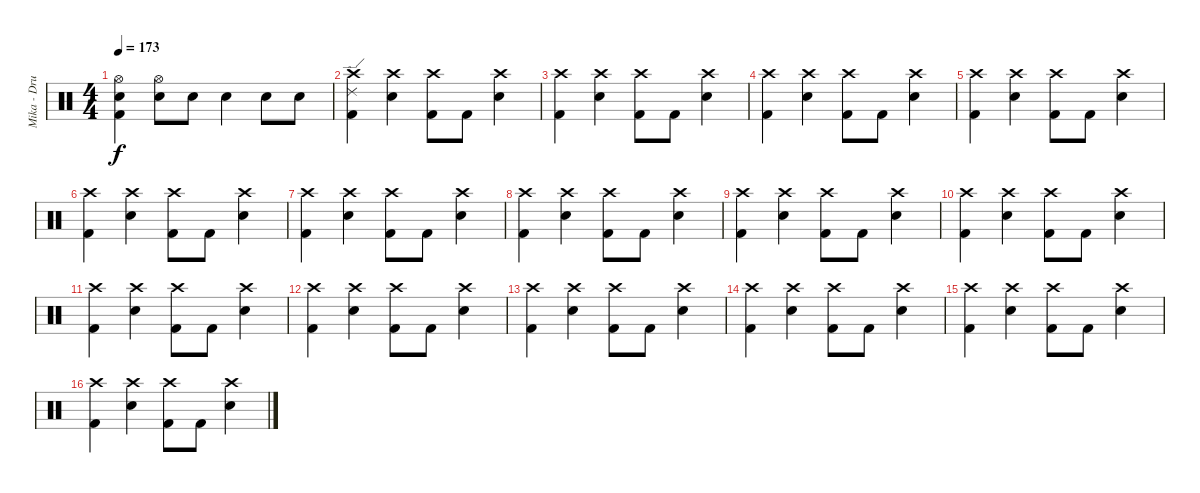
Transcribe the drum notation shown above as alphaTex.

\track ("Mika - Drums" "Mika - Dru") {instrument percussion}
\staff {score}
\articulation defaults
\ts (4 4)
\tempo 173
\clef neutral
\ks c
("Hi-Hat (open)" "Electric Snare (hit)" "Kick (hit) 2").4{dy f} ("Hi-Hat (open)" "Electric Snare (hit)").8 "Electric Snare (hit)".8 "Electric Snare (hit)".4 "Electric Snare (hit)".8 "Electric Snare (hit)".8 |
("Ride (edge) 2" "Crash high (hit)" "Kick (hit) 2").4 ("Crash high (hit)" "Electric Snare (hit)").4 ("Crash high (hit)" "Kick (hit) 2").8 "Kick (hit) 2".8 ("Crash high (hit)" "Electric Snare (hit)").4 |
("Crash high (hit)" "Kick (hit) 2").4 ("Crash high (hit)" "Electric Snare (hit)").4 ("Crash high (hit)" "Kick (hit) 2").8 "Kick (hit) 2".8 ("Crash high (hit)" "Electric Snare (hit)").4 |
("Crash high (hit)" "Kick (hit) 2").4 ("Crash high (hit)" "Electric Snare (hit)").4 ("Crash high (hit)" "Kick (hit) 2").8 "Kick (hit) 2".8 ("Crash high (hit)" "Electric Snare (hit)").4 |
("Crash high (hit)" "Kick (hit) 2").4 ("Crash high (hit)" "Electric Snare (hit)").4 ("Crash high (hit)" "Kick (hit) 2").8 "Kick (hit) 2".8 ("Crash high (hit)" "Electric Snare (hit)").4 |
("Crash high (hit)" "Kick (hit) 2").4 ("Crash high (hit)" "Electric Snare (hit)").4 ("Crash high (hit)" "Kick (hit) 2").8 "Kick (hit) 2".8 ("Crash high (hit)" "Electric Snare (hit)").4 |
("Crash high (hit)" "Kick (hit) 2").4 ("Crash high (hit)" "Electric Snare (hit)").4 ("Crash high (hit)" "Kick (hit) 2").8 "Kick (hit) 2".8 ("Crash high (hit)" "Electric Snare (hit)").4 |
("Crash high (hit)" "Kick (hit) 2").4 ("Crash high (hit)" "Electric Snare (hit)").4 ("Crash high (hit)" "Kick (hit) 2").8 "Kick (hit) 2".8 ("Crash high (hit)" "Electric Snare (hit)").4 |
("Crash high (hit)" "Kick (hit) 2").4 ("Crash high (hit)" "Electric Snare (hit)").4 ("Crash high (hit)" "Kick (hit) 2").8 "Kick (hit) 2".8 ("Crash high (hit)" "Electric Snare (hit)").4 |
("Crash high (hit)" "Kick (hit) 2").4 ("Crash high (hit)" "Electric Snare (hit)").4 ("Crash high (hit)" "Kick (hit) 2").8 "Kick (hit) 2".8 ("Crash high (hit)" "Electric Snare (hit)").4 |
("Crash high (hit)" "Kick (hit) 2").4 ("Crash high (hit)" "Electric Snare (hit)").4 ("Crash high (hit)" "Kick (hit) 2").8 "Kick (hit) 2".8 ("Crash high (hit)" "Electric Snare (hit)").4 |
("Crash high (hit)" "Kick (hit) 2").4 ("Crash high (hit)" "Electric Snare (hit)").4 ("Crash high (hit)" "Kick (hit) 2").8 "Kick (hit) 2".8 ("Crash high (hit)" "Electric Snare (hit)").4 |
("Crash high (hit)" "Kick (hit) 2").4 ("Crash high (hit)" "Electric Snare (hit)").4 ("Crash high (hit)" "Kick (hit) 2").8 "Kick (hit) 2".8 ("Crash high (hit)" "Electric Snare (hit)").4 |
("Crash high (hit)" "Kick (hit) 2").4 ("Crash high (hit)" "Electric Snare (hit)").4 ("Crash high (hit)" "Kick (hit) 2").8 "Kick (hit) 2".8 ("Crash high (hit)" "Electric Snare (hit)").4 |
("Crash high (hit)" "Kick (hit) 2").4 ("Crash high (hit)" "Electric Snare (hit)").4 ("Crash high (hit)" "Kick (hit) 2").8 "Kick (hit) 2".8 ("Crash high (hit)" "Electric Snare (hit)").4 |
("Crash high (hit)" "Kick (hit) 2").4 ("Crash high (hit)" "Electric Snare (hit)").4 ("Crash high (hit)" "Kick (hit) 2").8 "Kick (hit) 2".8 ("Crash high (hit)" "Electric Snare (hit)").4
